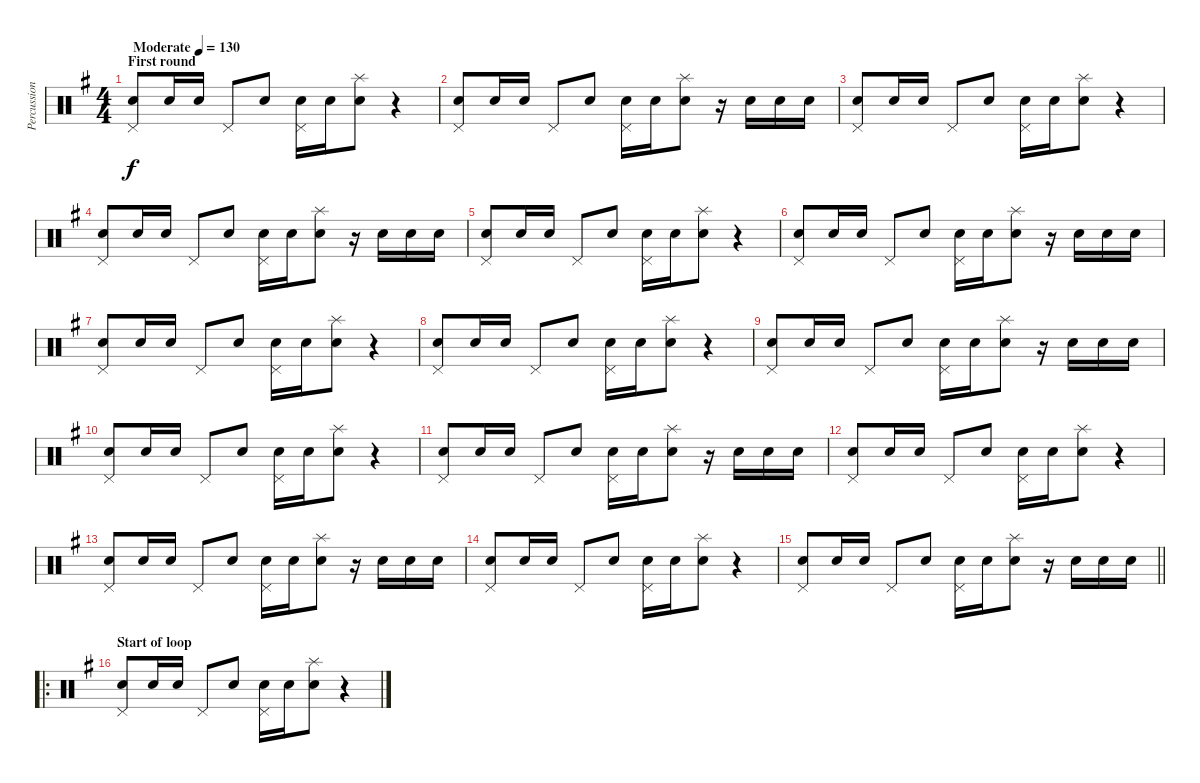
\track ("Percussion" "Percussion") {instrument percussion}
\staff {score}
\articulation defaults
\ts (4 4)
\section ("" "First round")
\tempo (130 "Moderate")
\clef neutral
\ks g
("Pedal Hi-Hat (hit)" "Snare (hit) 2").8{dy f} "Snare (hit) 2".16 "Snare (hit) 2".16 "Pedal Hi-Hat (hit)".8 "Snare (hit) 2".8 ("Pedal Hi-Hat (hit)" "Snare (hit) 2").16 "Snare (hit) 2".16 ("Splash (hit)" "Snare (hit) 2").8 r.4 |
("Pedal Hi-Hat (hit)" "Snare (hit) 2").8 "Snare (hit) 2".16 "Snare (hit) 2".16 "Pedal Hi-Hat (hit)".8 "Snare (hit) 2".8 ("Pedal Hi-Hat (hit)" "Snare (hit) 2").16 "Snare (hit) 2".16 ("Splash (hit)" "Snare (hit) 2").8 r.16 "Snare (hit) 2".16 "Snare (hit) 2".16 "Snare (hit) 2".16 |
("Pedal Hi-Hat (hit)" "Snare (hit) 2").8 "Snare (hit) 2".16 "Snare (hit) 2".16 "Pedal Hi-Hat (hit)".8 "Snare (hit) 2".8 ("Pedal Hi-Hat (hit)" "Snare (hit) 2").16 "Snare (hit) 2".16 ("Splash (hit)" "Snare (hit) 2").8 r.4 |
("Pedal Hi-Hat (hit)" "Snare (hit) 2").8 "Snare (hit) 2".16 "Snare (hit) 2".16 "Pedal Hi-Hat (hit)".8 "Snare (hit) 2".8 ("Pedal Hi-Hat (hit)" "Snare (hit) 2").16 "Snare (hit) 2".16 ("Splash (hit)" "Snare (hit) 2").8 r.16 "Snare (hit) 2".16 "Snare (hit) 2".16 "Snare (hit) 2".16 |
("Pedal Hi-Hat (hit)" "Snare (hit) 2").8 "Snare (hit) 2".16 "Snare (hit) 2".16 "Pedal Hi-Hat (hit)".8 "Snare (hit) 2".8 ("Pedal Hi-Hat (hit)" "Snare (hit) 2").16 "Snare (hit) 2".16 ("Splash (hit)" "Snare (hit) 2").8 r.4 |
("Pedal Hi-Hat (hit)" "Snare (hit) 2").8 "Snare (hit) 2".16 "Snare (hit) 2".16 "Pedal Hi-Hat (hit)".8 "Snare (hit) 2".8 ("Pedal Hi-Hat (hit)" "Snare (hit) 2").16 "Snare (hit) 2".16 ("Splash (hit)" "Snare (hit) 2").8 r.16 "Snare (hit) 2".16 "Snare (hit) 2".16 "Snare (hit) 2".16 |
("Pedal Hi-Hat (hit)" "Snare (hit) 2").8 "Snare (hit) 2".16 "Snare (hit) 2".16 "Pedal Hi-Hat (hit)".8 "Snare (hit) 2".8 ("Pedal Hi-Hat (hit)" "Snare (hit) 2").16 "Snare (hit) 2".16 ("Splash (hit)" "Snare (hit) 2").8 r.4 |
("Pedal Hi-Hat (hit)" "Snare (hit) 2").8 "Snare (hit) 2".16 "Snare (hit) 2".16 "Pedal Hi-Hat (hit)".8 "Snare (hit) 2".8 ("Pedal Hi-Hat (hit)" "Snare (hit) 2").16 "Snare (hit) 2".16 ("Splash (hit)" "Snare (hit) 2").8 r.4 |
("Pedal Hi-Hat (hit)" "Snare (hit) 2").8 "Snare (hit) 2".16 "Snare (hit) 2".16 "Pedal Hi-Hat (hit)".8 "Snare (hit) 2".8 ("Pedal Hi-Hat (hit)" "Snare (hit) 2").16 "Snare (hit) 2".16 ("Splash (hit)" "Snare (hit) 2").8 r.16 "Snare (hit) 2".16 "Snare (hit) 2".16 "Snare (hit) 2".16 |
("Pedal Hi-Hat (hit)" "Snare (hit) 2").8 "Snare (hit) 2".16 "Snare (hit) 2".16 "Pedal Hi-Hat (hit)".8 "Snare (hit) 2".8 ("Pedal Hi-Hat (hit)" "Snare (hit) 2").16 "Snare (hit) 2".16 ("Splash (hit)" "Snare (hit) 2").8 r.4 |
("Pedal Hi-Hat (hit)" "Snare (hit) 2").8 "Snare (hit) 2".16 "Snare (hit) 2".16 "Pedal Hi-Hat (hit)".8 "Snare (hit) 2".8 ("Pedal Hi-Hat (hit)" "Snare (hit) 2").16 "Snare (hit) 2".16 ("Splash (hit)" "Snare (hit) 2").8 r.16 "Snare (hit) 2".16 "Snare (hit) 2".16 "Snare (hit) 2".16 |
("Pedal Hi-Hat (hit)" "Snare (hit) 2").8 "Snare (hit) 2".16 "Snare (hit) 2".16 "Pedal Hi-Hat (hit)".8 "Snare (hit) 2".8 ("Pedal Hi-Hat (hit)" "Snare (hit) 2").16 "Snare (hit) 2".16 ("Splash (hit)" "Snare (hit) 2").8 r.4 |
("Pedal Hi-Hat (hit)" "Snare (hit) 2").8 "Snare (hit) 2".16 "Snare (hit) 2".16 "Pedal Hi-Hat (hit)".8 "Snare (hit) 2".8 ("Pedal Hi-Hat (hit)" "Snare (hit) 2").16 "Snare (hit) 2".16 ("Splash (hit)" "Snare (hit) 2").8 r.16 "Snare (hit) 2".16 "Snare (hit) 2".16 "Snare (hit) 2".16 |
("Pedal Hi-Hat (hit)" "Snare (hit) 2").8 "Snare (hit) 2".16 "Snare (hit) 2".16 "Pedal Hi-Hat (hit)".8 "Snare (hit) 2".8 ("Pedal Hi-Hat (hit)" "Snare (hit) 2").16 "Snare (hit) 2".16 ("Splash (hit)" "Snare (hit) 2").8 r.4 |
\barLineRight lightlight
("Pedal Hi-Hat (hit)" "Snare (hit) 2").8 "Snare (hit) 2".16 "Snare (hit) 2".16 "Pedal Hi-Hat (hit)".8 "Snare (hit) 2".8 ("Pedal Hi-Hat (hit)" "Snare (hit) 2").16 "Snare (hit) 2".16 ("Splash (hit)" "Snare (hit) 2").8 r.16 "Snare (hit) 2".16 "Snare (hit) 2".16 "Snare (hit) 2".16 |
\ro
\section ("" "Start of loop")
("Pedal Hi-Hat (hit)" "Snare (hit) 2").8 "Snare (hit) 2".16 "Snare (hit) 2".16 "Pedal Hi-Hat (hit)".8 "Snare (hit) 2".8 ("Pedal Hi-Hat (hit)" "Snare (hit) 2").16 "Snare (hit) 2".16 ("Splash (hit)" "Snare (hit) 2").8 r.4
